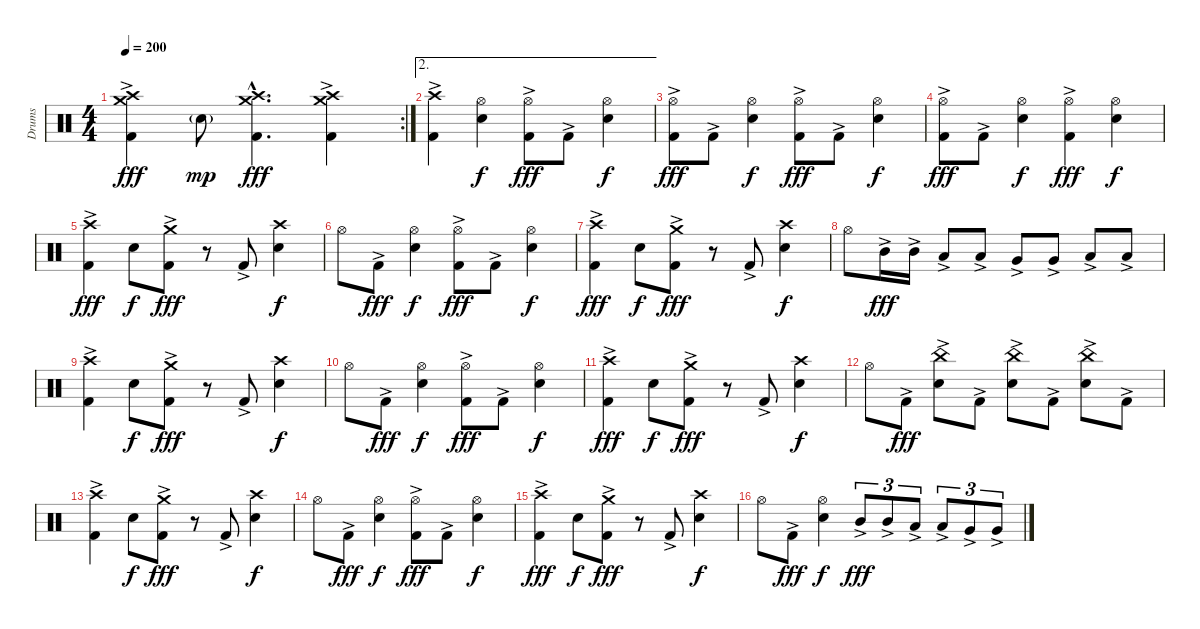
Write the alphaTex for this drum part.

\track ("Drums" "Drums") {instrument percussion}
\staff {score}
\articulation defaults
\rc 2
\ts (4 4)
\tempo 200
\clef neutral
\ks c
("Crash high (hit)" "Crash medium (hit)" "Kick (hit) 2"{ac}).4{dy fff} "Snare (hit) 2"{g}.8{dy mp} ("Crash high (hit)"{hac} "Crash medium (hit)"{hac} "Kick (hit) 2"{hac}).4{d dy fff} ("Crash high (hit)" "Crash medium (hit)" "Kick (hit) 2"{ac}).4 |
\ae 2
("Crash high (hit)" "Kick (hit) 2"{ac}).4 ("Hi-Hat (open)" "Snare (hit) 2").4{dy f} ("Hi-Hat (open)" "Kick (hit) 2"{ac}).8{dy fff} "Kick (hit) 2"{ac}.8 ("Hi-Hat (open)" "Snare (hit) 2").4{dy f} |
("Hi-Hat (open)" "Kick (hit) 2"{ac}).8{dy fff} "Kick (hit) 2"{ac}.8 ("Hi-Hat (open)" "Snare (hit) 2").4{dy f} ("Hi-Hat (open)" "Kick (hit) 2"{ac}).8{dy fff} "Kick (hit) 2"{ac}.8 ("Hi-Hat (open)" "Snare (hit) 2").4{dy f} |
("Hi-Hat (open)" "Kick (hit) 2"{ac}).8{dy fff} "Kick (hit) 2"{ac}.8 ("Hi-Hat (open)" "Snare (hit) 2").4{dy f} ("Hi-Hat (open)" "Kick (hit) 2"{ac}).4{dy fff} ("Hi-Hat (open)" "Snare (hit) 2").4{dy f} |
("Crash high (hit)" "Kick (hit) 2"{ac}).4{dy fff} "Snare (hit) 2".8{dy f} ("Crash medium (hit)" "Kick (hit) 2"{ac}).8{dy fff} r.8 "Kick (hit) 2"{ac}.8 ("Crash high (hit)" "Snare (hit) 2").4{dy f} |
"Hi-Hat (open)".8 "Kick (hit) 2"{ac}.8{dy fff} ("Hi-Hat (open)" "Snare (hit) 2").4{dy f} ("Hi-Hat (open)" "Kick (hit) 2"{ac}).8{dy fff} "Kick (hit) 2"{ac}.8 ("Hi-Hat (open)" "Snare (hit) 2").4{dy f} |
("Crash high (hit)" "Kick (hit) 2"{ac}).4{dy fff} "Snare (hit) 2".8{dy f} ("Crash medium (hit)" "Kick (hit) 2"{ac}).8{dy fff} r.8 "Kick (hit) 2"{ac}.8 ("Crash high (hit)" "Snare (hit) 2").4{dy f} |
"Hi-Hat (open)".8 "Mid Tom (hit)"{ac}.16{dy fff} "Mid Tom (hit)"{ac}.16 "Low Tom (hit)"{ac}.8 "Low Tom (hit)"{ac}.8 "Very Low Tom (hit)"{ac}.8 "Very Low Tom (hit)"{ac}.8 "Low Floor Tom (hit)"{ac}.8 "Low Floor Tom (hit)"{ac}.8 |
("Crash high (hit)" "Kick (hit) 2"{ac}).4 "Snare (hit) 2".8{dy f} ("Crash medium (hit)" "Kick (hit) 2"{ac}).8{dy fff} r.8 "Kick (hit) 2"{ac}.8 ("Crash high (hit)" "Snare (hit) 2").4{dy f} |
"Hi-Hat (open)".8 "Kick (hit) 2"{ac}.8{dy fff} ("Hi-Hat (open)" "Snare (hit) 2").4{dy f} ("Hi-Hat (open)" "Kick (hit) 2"{ac}).8{dy fff} "Kick (hit) 2"{ac}.8 ("Hi-Hat (open)" "Snare (hit) 2").4{dy f} |
("Crash high (hit)" "Kick (hit) 2"{ac}).4{dy fff} "Snare (hit) 2".8{dy f} ("Crash medium (hit)" "Kick (hit) 2"{ac}).8{dy fff} r.8 "Kick (hit) 2"{ac}.8 ("Crash high (hit)" "Snare (hit) 2").4{dy f} |
"Hi-Hat (open)".8 "Kick (hit) 2"{ac}.8{dy fff} ("China (hit)"{ac} "Snare (hit) 2").8 "Kick (hit) 2"{ac}.8 ("China (hit)"{ac} "Snare (hit) 2").8 "Kick (hit) 2"{ac}.8 ("China (hit)"{ac} "Snare (hit) 2").8 "Kick (hit) 2"{ac}.8 |
("Crash high (hit)" "Kick (hit) 2"{ac}).4 "Snare (hit) 2".8{dy f} ("Crash medium (hit)" "Kick (hit) 2"{ac}).8{dy fff} r.8 "Kick (hit) 2"{ac}.8 ("Crash high (hit)" "Snare (hit) 2").4{dy f} |
"Hi-Hat (open)".8 "Kick (hit) 2"{ac}.8{dy fff} ("Hi-Hat (open)" "Snare (hit) 2").4{dy f} ("Hi-Hat (open)" "Kick (hit) 2"{ac}).8{dy fff} "Kick (hit) 2"{ac}.8 ("Hi-Hat (open)" "Snare (hit) 2").4{dy f} |
("Crash high (hit)" "Kick (hit) 2"{ac}).4{dy fff} "Snare (hit) 2".8{dy f} ("Crash medium (hit)" "Kick (hit) 2"{ac}).8{dy fff} r.8 "Kick (hit) 2"{ac}.8 ("Crash high (hit)" "Snare (hit) 2").4{dy f} |
"Hi-Hat (open)".8 "Kick (hit) 2"{ac}.8{dy fff} ("Hi-Hat (open)" "Snare (hit) 2").4{dy f} "Mid Tom (hit)"{ac}.8{tu (3 2) dy fff} "Mid Tom (hit)"{ac}.8{tu (3 2)} "Low Tom (hit)"{ac}.8{tu (3 2)} "Low Tom (hit)"{ac}.8{tu (3 2)} "Very Low Tom (hit)"{ac}.8{tu (3 2)} "Very Low Tom (hit)"{ac}.8{tu (3 2)}
